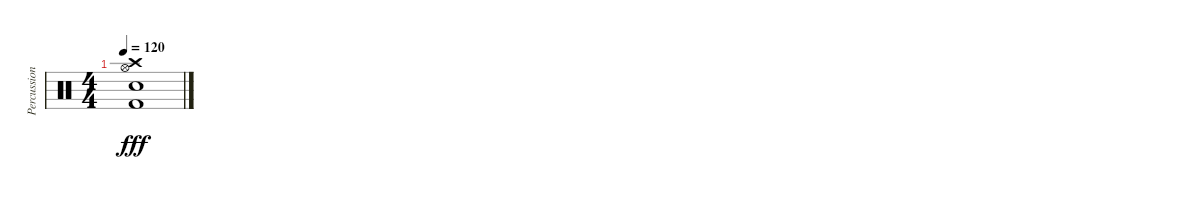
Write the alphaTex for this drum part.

\track ("Percussion" "Percussion") {instrument percussion}
\staff {score}
\articulation defaults
\ts (4 4)
\tempo 120
\clef neutral
\ks c
("Hi-Hat (open)" "Crash high (hit)" "Electric Snare (hit)" "Kick (hit) 2").1{dy fff}
